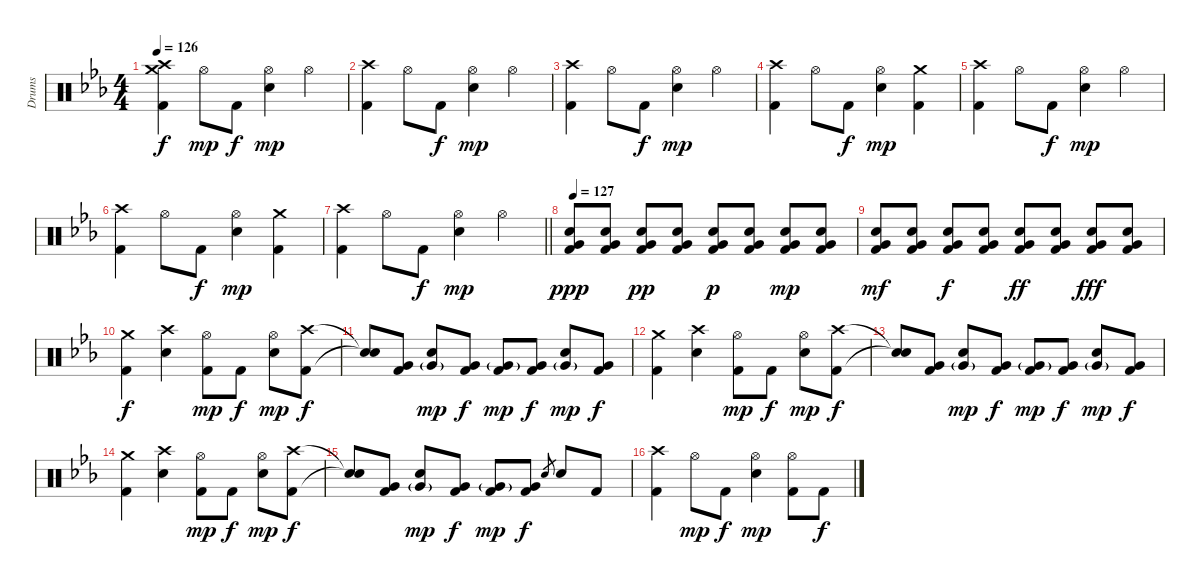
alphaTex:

\track ("Drums" "Drums") {instrument percussion}
\staff {score}
\articulation defaults
\ts (4 4)
\tempo 126
\clef neutral
\ks cminor
("Crash medium (hit)" "Crash high (hit)" "Kick (hit) 2").4{dy f} "Hi-Hat (open)".8{dy mp} "Kick (hit) 2".8{dy f} ("Hi-Hat (open)" "Electric Snare (hit)").4{dy mp} "Hi-Hat (open)".4 |
("Crash high (hit)" "Kick (hit) 2").4 "Hi-Hat (open)".8 "Kick (hit) 2".8{dy f} ("Hi-Hat (open)" "Electric Snare (hit)").4{dy mp} "Hi-Hat (open)".4 |
("Crash high (hit)" "Kick (hit) 2").4 "Hi-Hat (open)".8 "Kick (hit) 2".8{dy f} ("Hi-Hat (open)" "Electric Snare (hit)").4{dy mp} "Hi-Hat (open)".4 |
("Crash high (hit)" "Kick (hit) 2").4 "Hi-Hat (open)".8 "Kick (hit) 2".8{dy f} ("Hi-Hat (open)" "Electric Snare (hit)").4{dy mp} ("Crash medium (hit)" "Kick (hit) 2").4 |
("Crash high (hit)" "Kick (hit) 2").4 "Hi-Hat (open)".8 "Kick (hit) 2".8{dy f} ("Hi-Hat (open)" "Electric Snare (hit)").4{dy mp} "Hi-Hat (open)".4 |
("Crash high (hit)" "Kick (hit) 2").4 "Hi-Hat (open)".8 "Kick (hit) 2".8{dy f} ("Hi-Hat (open)" "Electric Snare (hit)").4{dy mp} ("Crash medium (hit)" "Kick (hit) 2").4 |
\barLineRight lightlight
("Crash high (hit)" "Kick (hit) 2").4 "Hi-Hat (open)".8 "Kick (hit) 2".8{dy f} ("Hi-Hat (open)" "Electric Snare (hit)").4{dy mp} "Hi-Hat (open)".4 |
\tempo 127
("Electric Snare (hit)" "Very Low Tom (hit)" "Kick (hit) 2").8{dy ppp} ("Electric Snare (hit)" "Very Low Tom (hit)" "Kick (hit) 2").8 ("Electric Snare (hit)" "Very Low Tom (hit)" "Kick (hit) 2").8{dy pp} ("Electric Snare (hit)" "Very Low Tom (hit)" "Kick (hit) 2").8 ("Electric Snare (hit)" "Very Low Tom (hit)" "Kick (hit) 2").8{dy p} ("Electric Snare (hit)" "Very Low Tom (hit)" "Kick (hit) 2").8 ("Electric Snare (hit)" "Very Low Tom (hit)" "Kick (hit) 2").8{dy mp} ("Electric Snare (hit)" "Very Low Tom (hit)" "Kick (hit) 2").8 |
("Electric Snare (hit)" "Very Low Tom (hit)" "Kick (hit) 2").8{dy mf} ("Electric Snare (hit)" "Very Low Tom (hit)" "Kick (hit) 2").8 ("Electric Snare (hit)" "Very Low Tom (hit)" "Kick (hit) 2").8{dy f} ("Electric Snare (hit)" "Very Low Tom (hit)" "Kick (hit) 2").8 ("Electric Snare (hit)" "Very Low Tom (hit)" "Kick (hit) 2").8{dy ff} ("Electric Snare (hit)" "Very Low Tom (hit)" "Kick (hit) 2").8 ("Electric Snare (hit)" "Very Low Tom (hit)" "Kick (hit) 2").8{dy fff} ("Electric Snare (hit)" "Very Low Tom (hit)" "Kick (hit) 2").8 |
("Crash medium (hit)" "Kick (hit) 2").4{dy f} ("Crash high (hit)" "Electric Snare (hit)").4 ("Hi-Hat (open)" "Kick (hit) 2").8{dy mp} "Kick (hit) 2".8{dy f} ("Hi-Hat (open)" "Electric Snare (hit)").8{dy mp} ("Crash high (hit)" "Kick (hit) 2").8{dy f} |
("Snare (hit)"{t} "Snare (hit)"{t}).8 ("Very Low Tom (hit)" "Kick (hit) 2").8 ("Electric Snare (hit)" "Very Low Tom (hit)"{g}).8{dy mp} ("Very Low Tom (hit)" "Kick (hit) 2").8{dy f} ("Very Low Tom (hit)"{g} "Kick (hit) 2").8{dy mp} ("Very Low Tom (hit)" "Kick (hit) 2").8{dy f} ("Electric Snare (hit)" "Very Low Tom (hit)"{g}).8{dy mp} ("Very Low Tom (hit)" "Kick (hit) 2").8{dy f} |
("Crash medium (hit)" "Kick (hit) 2").4 ("Crash high (hit)" "Electric Snare (hit)").4 ("Hi-Hat (open)" "Kick (hit) 2").8{dy mp} "Kick (hit) 2".8{dy f} ("Hi-Hat (open)" "Electric Snare (hit)").8{dy mp} ("Crash high (hit)" "Kick (hit) 2").8{dy f} |
("Snare (hit)"{t} "Snare (hit)"{t}).8 ("Very Low Tom (hit)" "Kick (hit) 2").8 ("Electric Snare (hit)" "Very Low Tom (hit)"{g}).8{dy mp} ("Very Low Tom (hit)" "Kick (hit) 2").8{dy f} ("Very Low Tom (hit)"{g} "Kick (hit) 2").8{dy mp} ("Very Low Tom (hit)" "Kick (hit) 2").8{dy f} ("Electric Snare (hit)" "Very Low Tom (hit)"{g}).8{dy mp} ("Very Low Tom (hit)" "Kick (hit) 2").8{dy f} |
("Crash medium (hit)" "Kick (hit) 2").4 ("Crash high (hit)" "Electric Snare (hit)").4 ("Hi-Hat (open)" "Kick (hit) 2").8{dy mp} "Kick (hit) 2".8{dy f} ("Hi-Hat (open)" "Electric Snare (hit)").8{dy mp} ("Crash high (hit)" "Kick (hit) 2").8{dy f} |
("Snare (hit)"{t} "Snare (hit)"{t}).8 ("Very Low Tom (hit)" "Kick (hit) 2").8 ("Electric Snare (hit)" "Very Low Tom (hit)"{g}).8{dy mp} ("Very Low Tom (hit)" "Kick (hit) 2").8{dy f} ("Very Low Tom (hit)"{g} "Kick (hit) 2").8{dy mp} ("Very Low Tom (hit)" "Kick (hit) 2").8{dy f} "Electric Snare (hit)".8{gr} "Electric Snare (hit)".8 "Kick (hit) 2".8 |
("Crash high (hit)" "Kick (hit) 2").4 "Hi-Hat (open)".8{dy mp} "Kick (hit) 2".8{dy f} ("Hi-Hat (open)" "Electric Snare (hit)").4{dy mp} ("Hi-Hat (open)" "Kick (hit) 2").8 "Kick (hit) 2".8{dy f}
